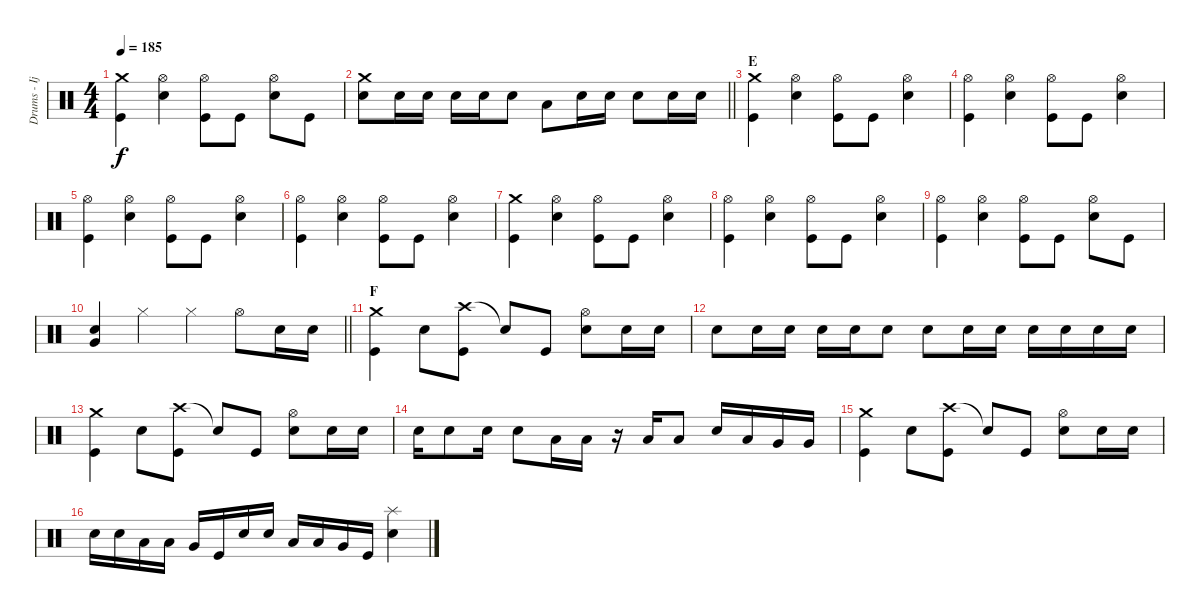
\track ("Drums - Ijichi" "Drums - Ij") {instrument percussion}
\staff {score}
\articulation defaults
\ts (4 4)
\tempo 185
\clef neutral
\ks c
("Crash medium (hit)" "Kick (hit)").4{dy f} ("Hi-Hat (open)" "Electric Snare (hit)").4 ("Hi-Hat (open)" "Kick (hit)").8 "Kick (hit)".8 ("Hi-Hat (open)" "Electric Snare (hit)").8 "Kick (hit)".8 |
\barLineRight lightlight
("Crash medium (hit)" "Electric Snare (hit)").8 "Electric Snare (hit)".16 "Electric Snare (hit)".16 "Electric Snare (hit)".16 "Electric Snare (hit)".16 "Electric Snare (hit)".8 "Low Tom (hit)".8 "Electric Snare (hit)".16 "Electric Snare (hit)".16 "Electric Snare (hit)".8 "Electric Snare (hit)".16 "Electric Snare (hit)".16 |
\section ("" "E")
("Crash medium (hit)" "Kick (hit)").4 ("Hi-Hat (open)" "Electric Snare (hit)").4 ("Hi-Hat (open)" "Kick (hit)").8 "Kick (hit)".8 ("Hi-Hat (open)" "Electric Snare (hit)").4 |
("Hi-Hat (open)" "Kick (hit)").4 ("Hi-Hat (open)" "Electric Snare (hit)").4 ("Hi-Hat (open)" "Kick (hit)").8 "Kick (hit)".8 ("Hi-Hat (open)" "Electric Snare (hit)").4 |
("Hi-Hat (open)" "Kick (hit)").4 ("Hi-Hat (open)" "Electric Snare (hit)").4 ("Hi-Hat (open)" "Kick (hit)").8 "Kick (hit)".8 ("Hi-Hat (open)" "Electric Snare (hit)").4 |
("Hi-Hat (open)" "Kick (hit)").4 ("Hi-Hat (open)" "Electric Snare (hit)").4 ("Hi-Hat (open)" "Kick (hit)").8 "Kick (hit)".8 ("Hi-Hat (open)" "Electric Snare (hit)").4 |
("Crash medium (hit)" "Kick (hit)").4 ("Hi-Hat (open)" "Electric Snare (hit)").4 ("Hi-Hat (open)" "Kick (hit)").8 "Kick (hit)".8 ("Hi-Hat (open)" "Electric Snare (hit)").4 |
("Hi-Hat (open)" "Kick (hit)").4 ("Hi-Hat (open)" "Electric Snare (hit)").4 ("Hi-Hat (open)" "Kick (hit)").8 "Kick (hit)".8 ("Hi-Hat (open)" "Electric Snare (hit)").4 |
("Hi-Hat (open)" "Kick (hit)").4 ("Hi-Hat (open)" "Electric Snare (hit)").4 ("Hi-Hat (open)" "Kick (hit)").8 "Kick (hit)".8 ("Hi-Hat (open)" "Electric Snare (hit)").8 "Kick (hit)".8 |
\barLineRight lightlight
("Electric Snare (hit)" "Very Low Tom (hit)").4 "Hi-Hat (closed)".4 "Hi-Hat (closed)".4 "Hi-Hat (open)".8 "Electric Snare (hit)".16 "Electric Snare (hit)".16 |
\section ("" "F")
("Crash medium (hit)" "Kick (hit)").4 "Electric Snare (hit)".8 ("Crash high (hit)" "Kick (hit)").8 "Snare (hit)"{t}.8 "Kick (hit)".8 ("Hi-Hat (open)" "Electric Snare (hit)").8 "Electric Snare (hit)".16 "Electric Snare (hit)".16 |
"Electric Snare (hit)".8 "Electric Snare (hit)".16 "Electric Snare (hit)".16 "Electric Snare (hit)".16 "Electric Snare (hit)".16 "Electric Snare (hit)".8 "Electric Snare (hit)".8 "Electric Snare (hit)".16 "Electric Snare (hit)".16 "Electric Snare (hit)".16 "Electric Snare (hit)".16 "Electric Snare (hit)".16 "Electric Snare (hit)".16 |
("Crash medium (hit)" "Kick (hit)").4 "Electric Snare (hit)".8 ("Crash high (hit)" "Kick (hit)").8 "Snare (hit)"{t}.8 "Kick (hit)".8 ("Hi-Hat (open)" "Electric Snare (hit)").8 "Electric Snare (hit)".16 "Electric Snare (hit)".16 |
"Electric Snare (hit)".16 "Electric Snare (hit)".8 "Electric Snare (hit)".16 "Electric Snare (hit)".8 "Low Tom (hit)".16 "Low Tom (hit)".16 r.16 "Low Tom (hit)".16 "Low Tom (hit)".8 "Electric Snare (hit)".16 "Low Tom (hit)".16 "Very Low Tom (hit)".16 "Very Low Tom (hit)".16 |
("Crash medium (hit)" "Kick (hit)").4 "Electric Snare (hit)".8 ("Crash high (hit)" "Kick (hit)").8 "Snare (hit)"{t}.8 "Kick (hit)".8 ("Hi-Hat (open)" "Electric Snare (hit)").8 "Electric Snare (hit)".16 "Electric Snare (hit)".16 |
"Electric Snare (hit)".16 "Electric Snare (hit)".16 "Low Tom (hit)".16 "Low Tom (hit)".16 "Very Low Tom (hit)".16 "Kick (hit)".16 "Electric Snare (hit)".16 "Electric Snare (hit)".16 "Low Tom (hit)".16 "Low Tom (hit)".16 "Very Low Tom (hit)".16 "Kick (hit)".16 ("Splash (hit)" "Electric Snare (hit)").4
